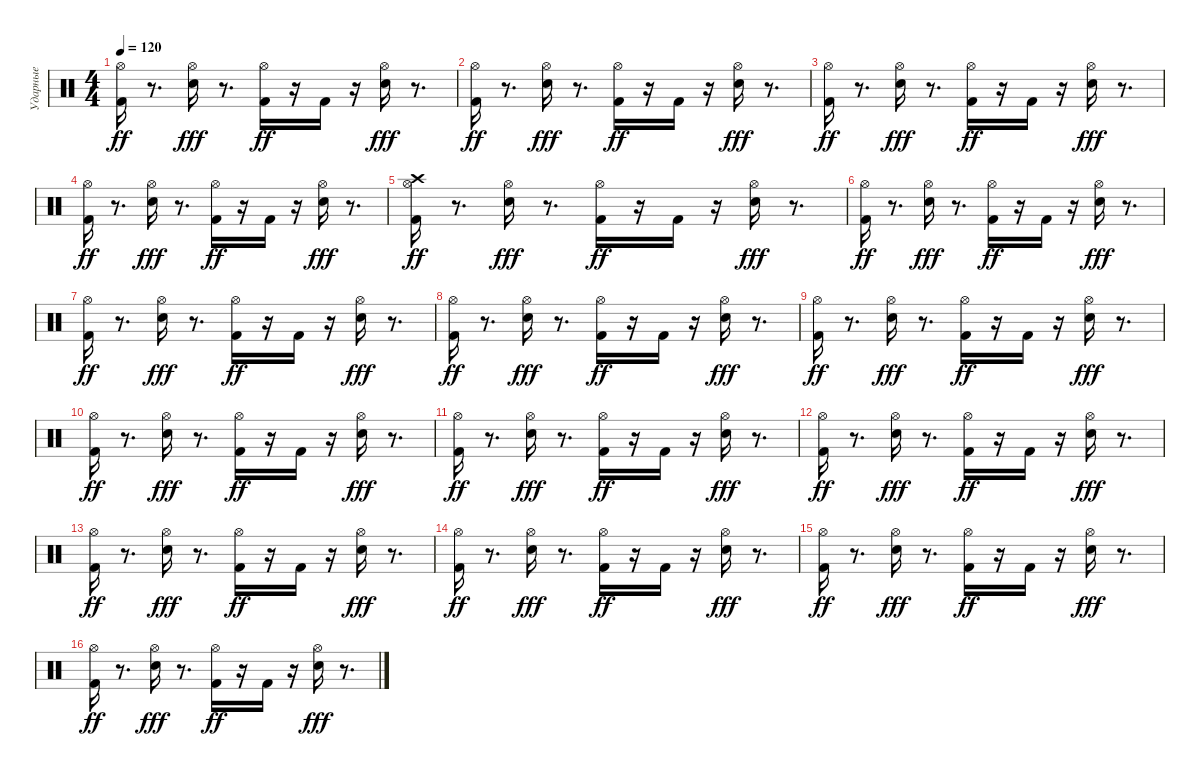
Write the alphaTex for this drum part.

\track ("Ударные" "Ударные") {instrument percussion}
\staff {score}
\articulation defaults
\ts (4 4)
\tempo 120
\clef neutral
\ks c
("Kick (hit) 2" "Hi-Hat (open)").16{dy ff} r.8{d} ("Snare (hit) 2" "Hi-Hat (open)").16{dy fff} r.8{d} ("Kick (hit) 2" "Hi-Hat (open)").16{dy ff} r.16 "Kick (hit) 2".16 r.16 ("Snare (hit) 2" "Hi-Hat (open)").16{dy fff} r.8{d} |
("Kick (hit) 2" "Hi-Hat (open)").16{dy ff} r.8{d} ("Snare (hit) 2" "Hi-Hat (open)").16{dy fff} r.8{d} ("Kick (hit) 2" "Hi-Hat (open)").16{dy ff} r.16 "Kick (hit) 2".16 r.16 ("Snare (hit) 2" "Hi-Hat (open)").16{dy fff} r.8{d} |
("Kick (hit) 2" "Hi-Hat (open)").16{dy ff} r.8{d} ("Snare (hit) 2" "Hi-Hat (open)").16{dy fff} r.8{d} ("Kick (hit) 2" "Hi-Hat (open)").16{dy ff} r.16 "Kick (hit) 2".16 r.16 ("Snare (hit) 2" "Hi-Hat (open)").16{dy fff} r.8{d} |
("Kick (hit) 2" "Hi-Hat (open)").16{dy ff} r.8{d} ("Snare (hit) 2" "Hi-Hat (open)").16{dy fff} r.8{d} ("Kick (hit) 2" "Hi-Hat (open)").16{dy ff} r.16 "Kick (hit) 2".16 r.16 ("Snare (hit) 2" "Hi-Hat (open)").16{dy fff} r.8{d} |
("Kick (hit) 2" "Hi-Hat (open)" "Crash high (hit)").16{dy ff} r.8{d} ("Snare (hit) 2" "Hi-Hat (open)").16{dy fff} r.8{d} ("Kick (hit) 2" "Hi-Hat (open)").16{dy ff} r.16 "Kick (hit) 2".16 r.16 ("Snare (hit) 2" "Hi-Hat (open)").16{dy fff} r.8{d} |
("Kick (hit) 2" "Hi-Hat (open)").16{dy ff} r.8{d} ("Snare (hit) 2" "Hi-Hat (open)").16{dy fff} r.8{d} ("Kick (hit) 2" "Hi-Hat (open)").16{dy ff} r.16 "Kick (hit) 2".16 r.16 ("Snare (hit) 2" "Hi-Hat (open)").16{dy fff} r.8{d} |
("Kick (hit) 2" "Hi-Hat (open)").16{dy ff} r.8{d} ("Snare (hit) 2" "Hi-Hat (open)").16{dy fff} r.8{d} ("Kick (hit) 2" "Hi-Hat (open)").16{dy ff} r.16 "Kick (hit) 2".16 r.16 ("Snare (hit) 2" "Hi-Hat (open)").16{dy fff} r.8{d} |
("Kick (hit) 2" "Hi-Hat (open)").16{dy ff} r.8{d} ("Snare (hit) 2" "Hi-Hat (open)").16{dy fff} r.8{d} ("Kick (hit) 2" "Hi-Hat (open)").16{dy ff} r.16 "Kick (hit) 2".16 r.16 ("Snare (hit) 2" "Hi-Hat (open)").16{dy fff} r.8{d} |
("Kick (hit) 2" "Hi-Hat (open)").16{dy ff} r.8{d} ("Snare (hit) 2" "Hi-Hat (open)").16{dy fff} r.8{d} ("Kick (hit) 2" "Hi-Hat (open)").16{dy ff} r.16 "Kick (hit) 2".16 r.16 ("Snare (hit) 2" "Hi-Hat (open)").16{dy fff} r.8{d} |
("Kick (hit) 2" "Hi-Hat (open)").16{dy ff} r.8{d} ("Snare (hit) 2" "Hi-Hat (open)").16{dy fff} r.8{d} ("Kick (hit) 2" "Hi-Hat (open)").16{dy ff} r.16 "Kick (hit) 2".16 r.16 ("Snare (hit) 2" "Hi-Hat (open)").16{dy fff} r.8{d} |
("Kick (hit) 2" "Hi-Hat (open)").16{dy ff} r.8{d} ("Snare (hit) 2" "Hi-Hat (open)").16{dy fff} r.8{d} ("Kick (hit) 2" "Hi-Hat (open)").16{dy ff} r.16 "Kick (hit) 2".16 r.16 ("Snare (hit) 2" "Hi-Hat (open)").16{dy fff} r.8{d} |
("Kick (hit) 2" "Hi-Hat (open)").16{dy ff} r.8{d} ("Snare (hit) 2" "Hi-Hat (open)").16{dy fff} r.8{d} ("Kick (hit) 2" "Hi-Hat (open)").16{dy ff} r.16 "Kick (hit) 2".16 r.16 ("Snare (hit) 2" "Hi-Hat (open)").16{dy fff} r.8{d} |
("Kick (hit) 2" "Hi-Hat (open)").16{dy ff} r.8{d} ("Snare (hit) 2" "Hi-Hat (open)").16{dy fff} r.8{d} ("Kick (hit) 2" "Hi-Hat (open)").16{dy ff} r.16 "Kick (hit) 2".16 r.16 ("Snare (hit) 2" "Hi-Hat (open)").16{dy fff} r.8{d} |
("Kick (hit) 2" "Hi-Hat (open)").16{dy ff} r.8{d} ("Snare (hit) 2" "Hi-Hat (open)").16{dy fff} r.8{d} ("Kick (hit) 2" "Hi-Hat (open)").16{dy ff} r.16 "Kick (hit) 2".16 r.16 ("Snare (hit) 2" "Hi-Hat (open)").16{dy fff} r.8{d} |
("Kick (hit) 2" "Hi-Hat (open)").16{dy ff} r.8{d} ("Snare (hit) 2" "Hi-Hat (open)").16{dy fff} r.8{d} ("Kick (hit) 2" "Hi-Hat (open)").16{dy ff} r.16 "Kick (hit) 2".16 r.16 ("Snare (hit) 2" "Hi-Hat (open)").16{dy fff} r.8{d} |
("Kick (hit) 2" "Hi-Hat (open)").16{dy ff} r.8{d} ("Snare (hit) 2" "Hi-Hat (open)").16{dy fff} r.8{d} ("Kick (hit) 2" "Hi-Hat (open)").16{dy ff} r.16 "Kick (hit) 2".16 r.16 ("Snare (hit) 2" "Hi-Hat (open)").16{dy fff} r.8{d}
